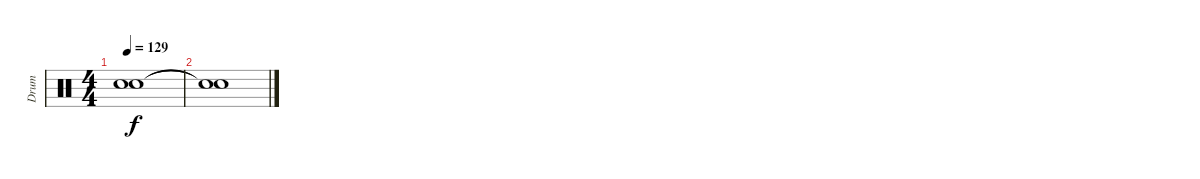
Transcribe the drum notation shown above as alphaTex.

\track ("Drum" "Drum") {instrument percussion}
\staff {score}
\articulation defaults
\ts (4 4)
\tempo 129
\clef neutral
\ks c
("Snare (hit)"{t} "Snare (hit)"{t}).1{dy f} |
("Snare (hit)"{t} "Snare (hit)"{t}).1
